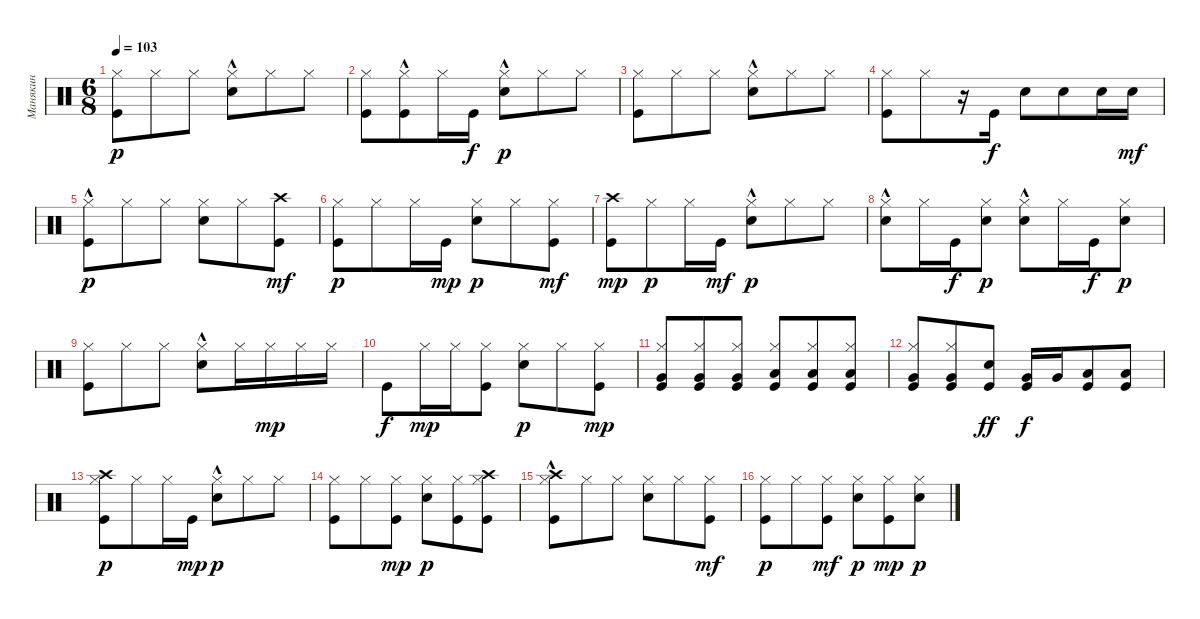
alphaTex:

\track ("Манякин" "Манякин") {instrument percussion}
\staff {score}
\articulation defaults
\ts (6 8)
\tempo 103
\clef neutral
\ks c
("Kick (hit)" "Hi-Hat (closed)").8{dy p} "Hi-Hat (closed)".8 "Hi-Hat (closed)".8 ("Electric Snare (hit)"{hac} "Hi-Hat (closed)").8 "Hi-Hat (closed)".8 "Hi-Hat (closed)".8 |
("Hi-Hat (closed)" "Kick (hit)").8 ("Hi-Hat (closed)" "Kick (hit)"{hac}).8 "Hi-Hat (closed)".16 "Kick (hit)".16{dy f} ("Hi-Hat (closed)" "Electric Snare (hit)"{hac}).8{dy p} "Hi-Hat (closed)".8 "Hi-Hat (closed)".8 |
("Hi-Hat (closed)" "Kick (hit)").8 "Hi-Hat (closed)".8 "Hi-Hat (closed)".8 ("Hi-Hat (closed)" "Electric Snare (hit)"{hac}).8 "Hi-Hat (closed)".8 "Hi-Hat (closed)".8 |
("Hi-Hat (closed)" "Kick (hit)").8 "Hi-Hat (closed)".8 r.16 "Kick (hit)".16{dy f} "Electric Snare (hit)".8 "Electric Snare (hit)".8 "Electric Snare (hit)".16 "Electric Snare (hit)".16{dy mf} |
("Hi-Hat (closed)" "Kick (hit)"{hac}).8{dy p} "Hi-Hat (closed)".8 "Hi-Hat (closed)".8 ("Hi-Hat (closed)" "Electric Snare (hit)").8 "Hi-Hat (closed)".8 ("Crash high (hit)" "Kick (hit)").8{dy mf} |
("Hi-Hat (closed)" "Kick (hit)").8{dy p} "Hi-Hat (closed)".8 "Hi-Hat (closed)".16 "Kick (hit)".16{dy mp} ("Hi-Hat (closed)" "Electric Snare (hit)").8{dy p} "Hi-Hat (closed)".8 ("Hi-Hat (closed)" "Kick (hit)").8{dy mf} |
("Crash high (hit)" "Kick (hit)").8{dy mp} "Hi-Hat (closed)".8{dy p} "Hi-Hat (closed)".16 "Kick (hit)".16{dy mf} ("Hi-Hat (closed)" "Electric Snare (hit)"{hac}).8{dy p} "Hi-Hat (closed)".8 "Hi-Hat (closed)".8 |
("Hi-Hat (closed)" "Electric Snare (hit)"{hac}).8 "Hi-Hat (closed)".16 "Kick (hit)".16{dy f} ("Hi-Hat (closed)" "Electric Snare (hit)").8{dy p} ("Hi-Hat (closed)" "Electric Snare (hit)"{hac}).8 "Hi-Hat (closed)".16 "Kick (hit)".16{dy f} ("Hi-Hat (closed)" "Electric Snare (hit)").8{dy p} |
("Hi-Hat (closed)" "Kick (hit)").8 "Hi-Hat (closed)".8 "Hi-Hat (closed)".8 ("Hi-Hat (closed)" "Electric Snare (hit)"{hac}).8 "Hi-Hat (closed)".16 "Hi-Hat (closed)".16{dy mp} "Hi-Hat (closed)".16 "Hi-Hat (closed)".16 |
"Kick (hit)".8{dy f} "Hi-Hat (closed)".16{dy mp} "Hi-Hat (closed)".16 ("Kick (hit)" "Hi-Hat (closed)").8 ("Hi-Hat (closed)" "Electric Snare (hit)").8{dy p} "Hi-Hat (closed)".8 ("Hi-Hat (closed)" "Kick (hit)").8{dy mp} |
("Hi-Hat (closed)" "Kick (hit)" "Very Low Tom (hit)").8 ("Hi-Hat (closed)" "Kick (hit)" "Very Low Tom (hit)").8 ("Hi-Hat (closed)" "Kick (hit)" "Very Low Tom (hit)").8 ("Hi-Hat (closed)" "Kick (hit)" "Low Floor Tom (hit)").8 ("Hi-Hat (closed)" "Kick (hit)" "Low Floor Tom (hit)").8 ("Hi-Hat (closed)" "Kick (hit)" "Low Floor Tom (hit)").8 |
("Hi-Hat (closed)" "Very Low Tom (hit)" "Kick (hit)").8 ("Hi-Hat (closed)" "Very Low Tom (hit)" "Kick (hit)").8 ("Electric Snare (hit)" "Kick (hit)").8{dy ff} ("Kick (hit)" "Very Low Tom (hit)").16{dy f} "Very Low Tom (hit)".16 ("Kick (hit)" "Low Floor Tom (hit)").8 ("Kick (hit)" "Low Floor Tom (hit)").8 |
("Crash high (hit)" "Hi-Hat (closed)" "Kick (hit)").8{dy p} "Hi-Hat (closed)".8 "Hi-Hat (closed)".16 "Kick (hit)".16{dy mp} ("Hi-Hat (closed)" "Electric Snare (hit)"{hac}).8{dy p} "Hi-Hat (closed)".8 "Hi-Hat (closed)".8 |
("Hi-Hat (closed)" "Kick (hit)").8 "Hi-Hat (closed)".8 ("Hi-Hat (closed)" "Kick (hit)").8{dy mp} ("Hi-Hat (closed)" "Electric Snare (hit)").8{dy p} ("Hi-Hat (closed)" "Kick (hit)").8 ("Crash high (hit)" "Hi-Hat (closed)" "Kick (hit)").8 |
("Crash high (hit)" "Hi-Hat (closed)" "Kick (hit)"{hac}).8 "Hi-Hat (closed)".8 "Hi-Hat (closed)".8 ("Hi-Hat (closed)" "Electric Snare (hit)").8 "Hi-Hat (closed)".8 ("Hi-Hat (closed)" "Kick (hit)").8{dy mf} |
("Hi-Hat (closed)" "Kick (hit)").8{dy p} "Hi-Hat (closed)".8 ("Hi-Hat (closed)" "Kick (hit)").8{dy mf} ("Hi-Hat (closed)" "Electric Snare (hit)").8{dy p} ("Hi-Hat (closed)" "Kick (hit)").8{dy mp} ("Hi-Hat (closed)" "Electric Snare (hit)").8{dy p}
